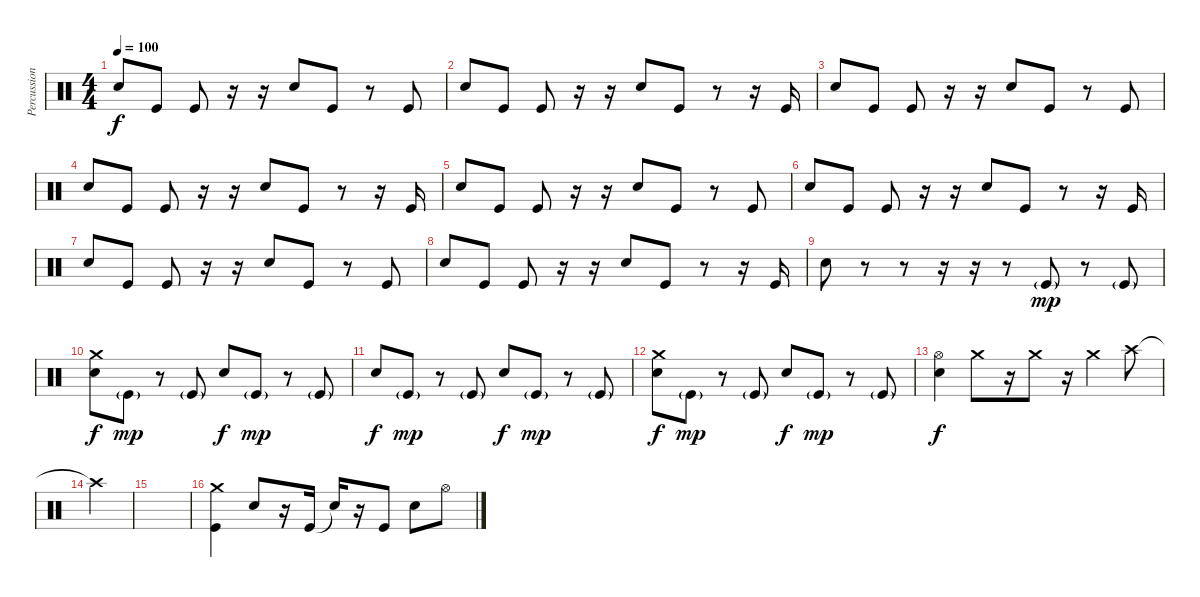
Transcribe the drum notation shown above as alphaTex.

\track ("Percussion" "Percussion") {instrument percussion}
\staff {score}
\articulation defaults
\ts (4 4)
\tempo 100
\clef neutral
\ks c "Electric Snare (hit)".8{dy f} "Kick (hit)".8 "Kick (hit)".8
r.16 r.16 "Electric Snare (hit)".8 "Kick (hit)".8 r.8 "Kick (hit)".8 |
"Electric Snare (hit)".8 "Kick (hit)".8 "Kick (hit)".8 r.16 r.16 "Electric Snare (hit)".8 "Kick (hit)".8 r.8 r.16 "Kick (hit)".16 |
"Electric Snare (hit)".8 "Kick (hit)".8 "Kick (hit)".8 r.16 r.16 "Electric Snare (hit)".8 "Kick (hit)".8 r.8 "Kick (hit)".8 |
"Electric Snare (hit)".8 "Kick (hit)".8 "Kick (hit)".8 r.16 r.16 "Electric Snare (hit)".8 "Kick (hit)".8 r.8 r.16 "Kick (hit)".16 |
"Electric Snare (hit)".8 "Kick (hit)".8 "Kick (hit)".8 r.16 r.16 "Electric Snare (hit)".8 "Kick (hit)".8 r.8 "Kick (hit)".8 |
"Electric Snare (hit)".8 "Kick (hit)".8 "Kick (hit)".8 r.16 r.16 "Electric Snare (hit)".8 "Kick (hit)".8 r.8 r.16 "Kick (hit)".16 |
"Electric Snare (hit)".8 "Kick (hit)".8 "Kick (hit)".8 r.16 r.16 "Electric Snare (hit)".8 "Kick (hit)".8 r.8 "Kick (hit)".8 |
"Electric Snare (hit)".8 "Kick (hit)".8 "Kick (hit)".8 r.16 r.16 "Electric Snare (hit)".8 "Kick (hit)".8 r.8 r.16 "Kick (hit)".16 |
"Electric Snare (hit)".8 r.8 r.8 r.16 r.16 r.8 "Kick (hit)"{g}.8{dy mp} r.8 "Kick (hit)"{g}.8 |
("Crash medium (hit)" "Electric Snare (hit)").8{dy f} "Kick (hit)"{g}.8{dy mp} r.8 "Kick (hit)"{g}.8 "Electric Snare (hit)".8{dy f} "Kick (hit)"{g}.8{dy mp} r.8 "Kick (hit)"{g}.8 |
"Electric Snare (hit)".8{dy f} "Kick (hit)"{g}.8{dy mp} r.8 "Kick (hit)"{g}.8 "Electric Snare (hit)".8{dy f} "Kick (hit)"{g}.8{dy mp} r.8 "Kick (hit)"{g}.8 |
("Crash medium (hit)" "Electric Snare (hit)").8{dy f} "Kick (hit)"{g}.8{dy mp} r.8 "Kick (hit)"{g}.8 "Electric Snare (hit)".8{dy f} "Kick (hit)"{g}.8{dy mp} r.8 "Kick (hit)"{g}.8 |
("Electric Snare (hit)" "Hi-Hat (open)").4{dy f} "Crash medium (hit)".8 r.16 "Crash medium (hit)".8 r.16 "Crash medium (hit)".4 "Crash high (hit)".8 |
"Crash high (hit)"{t}.4 |
|
("Crash medium (hit)" "Kick (hit)").4 "Electric Snare (hit)".8 r.16 "Kick (hit)".16 "Snare (hit)"{t}.16 r.16 "Kick (hit)".8 "Electric Snare (hit)".8 "Hi-Hat (open)".8
